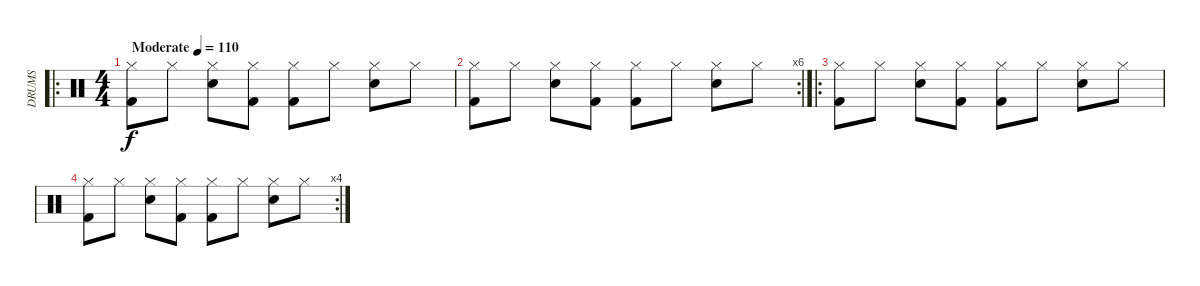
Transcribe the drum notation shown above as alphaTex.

\track ("DRUMS" "DRUMS") {instrument percussion}
\staff {score}
\articulation defaults
\ro
\ts (4 4)
\tempo (110 "Moderate")
\clef neutral
\ks c
("Hi-Hat (closed)" "Kick (hit) 2").8{dy f} "Hi-Hat (closed)".8 ("Hi-Hat (closed)" "Snare (hit) 2").8 ("Hi-Hat (closed)" "Kick (hit) 2").8 ("Hi-Hat (closed)" "Kick (hit) 2").8 "Hi-Hat (closed)".8 ("Hi-Hat (closed)" "Snare (hit) 2").8 "Hi-Hat (closed)".8 |
\rc 6
("Hi-Hat (closed)" "Kick (hit) 2").8 "Hi-Hat (closed)".8 ("Hi-Hat (closed)" "Snare (hit) 2").8 ("Hi-Hat (closed)" "Kick (hit) 2").8 ("Hi-Hat (closed)" "Kick (hit) 2").8 "Hi-Hat (closed)".8 ("Hi-Hat (closed)" "Snare (hit) 2").8 "Hi-Hat (closed)".8 |
\ro
("Hi-Hat (closed)" "Kick (hit) 2").8 "Hi-Hat (closed)".8 ("Hi-Hat (closed)" "Snare (hit) 2").8 ("Hi-Hat (closed)" "Kick (hit) 2").8 ("Hi-Hat (closed)" "Kick (hit) 2").8 "Hi-Hat (closed)".8 ("Hi-Hat (closed)" "Snare (hit) 2").8 "Hi-Hat (closed)".8 |
\rc 4
("Hi-Hat (closed)" "Kick (hit) 2").8 "Hi-Hat (closed)".8 ("Hi-Hat (closed)" "Snare (hit) 2").8 ("Hi-Hat (closed)" "Kick (hit) 2").8 ("Hi-Hat (closed)" "Kick (hit) 2").8 "Hi-Hat (closed)".8 ("Hi-Hat (closed)" "Snare (hit) 2").8 "Hi-Hat (closed)".8
